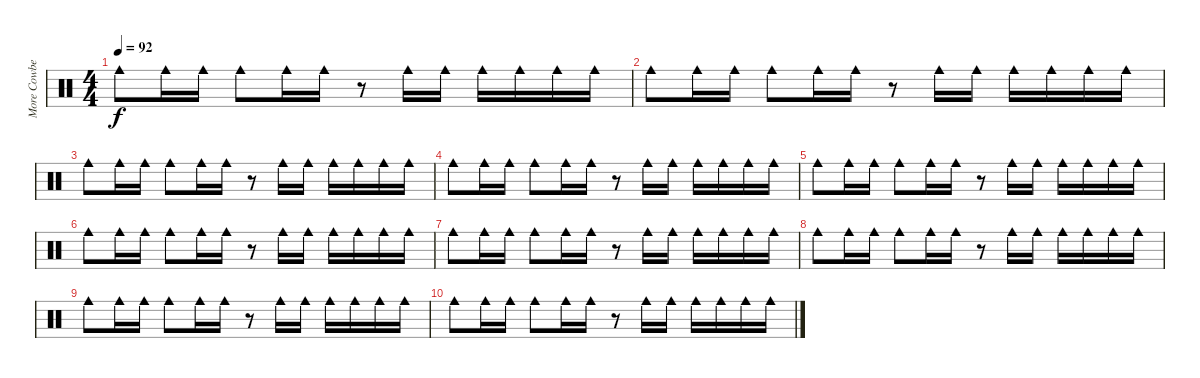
\track ("More Cowbell!" "More Cowbe") {instrument percussion}
\staff {score}
\articulation defaults
\ts (4 4)
\tempo 92
\clef neutral
\ks c "Cowbell medium (hit)".8{dy f} "Cowbell medium (hit)".16 "Cowbell medium (hit)".16 "Cowbell medium (hit)".8 "Cowbell medium (hit)".16 "Cowbell medium (hit)".16
r.8 "Cowbell medium (hit)".16 "Cowbell medium (hit)".16 "Cowbell medium (hit)".16 "Cowbell medium (hit)".16 "Cowbell medium (hit)".16 "Cowbell medium (hit)".16 |
"Cowbell medium (hit)".8 "Cowbell medium (hit)".16 "Cowbell medium (hit)".16 "Cowbell medium (hit)".8 "Cowbell medium (hit)".16 "Cowbell medium (hit)".16 r.8 "Cowbell medium (hit)".16 "Cowbell medium (hit)".16 "Cowbell medium (hit)".16 "Cowbell medium (hit)".16 "Cowbell medium (hit)".16 "Cowbell medium (hit)".16 |
"Cowbell medium (hit)".8 "Cowbell medium (hit)".16 "Cowbell medium (hit)".16 "Cowbell medium (hit)".8 "Cowbell medium (hit)".16 "Cowbell medium (hit)".16 r.8 "Cowbell medium (hit)".16 "Cowbell medium (hit)".16 "Cowbell medium (hit)".16 "Cowbell medium (hit)".16 "Cowbell medium (hit)".16 "Cowbell medium (hit)".16 |
"Cowbell medium (hit)".8 "Cowbell medium (hit)".16 "Cowbell medium (hit)".16 "Cowbell medium (hit)".8 "Cowbell medium (hit)".16 "Cowbell medium (hit)".16 r.8 "Cowbell medium (hit)".16 "Cowbell medium (hit)".16 "Cowbell medium (hit)".16 "Cowbell medium (hit)".16 "Cowbell medium (hit)".16 "Cowbell medium (hit)".16 |
"Cowbell medium (hit)".8 "Cowbell medium (hit)".16 "Cowbell medium (hit)".16 "Cowbell medium (hit)".8 "Cowbell medium (hit)".16 "Cowbell medium (hit)".16 r.8 "Cowbell medium (hit)".16 "Cowbell medium (hit)".16 "Cowbell medium (hit)".16 "Cowbell medium (hit)".16 "Cowbell medium (hit)".16 "Cowbell medium (hit)".16 |
"Cowbell medium (hit)".8 "Cowbell medium (hit)".16 "Cowbell medium (hit)".16 "Cowbell medium (hit)".8 "Cowbell medium (hit)".16 "Cowbell medium (hit)".16 r.8 "Cowbell medium (hit)".16 "Cowbell medium (hit)".16 "Cowbell medium (hit)".16 "Cowbell medium (hit)".16 "Cowbell medium (hit)".16 "Cowbell medium (hit)".16 |
"Cowbell medium (hit)".8 "Cowbell medium (hit)".16 "Cowbell medium (hit)".16 "Cowbell medium (hit)".8 "Cowbell medium (hit)".16 "Cowbell medium (hit)".16 r.8 "Cowbell medium (hit)".16 "Cowbell medium (hit)".16 "Cowbell medium (hit)".16 "Cowbell medium (hit)".16 "Cowbell medium (hit)".16 "Cowbell medium (hit)".16 |
"Cowbell medium (hit)".8 "Cowbell medium (hit)".16 "Cowbell medium (hit)".16 "Cowbell medium (hit)".8 "Cowbell medium (hit)".16 "Cowbell medium (hit)".16 r.8 "Cowbell medium (hit)".16 "Cowbell medium (hit)".16 "Cowbell medium (hit)".16 "Cowbell medium (hit)".16 "Cowbell medium (hit)".16 "Cowbell medium (hit)".16 |
"Cowbell medium (hit)".8 "Cowbell medium (hit)".16 "Cowbell medium (hit)".16 "Cowbell medium (hit)".8 "Cowbell medium (hit)".16 "Cowbell medium (hit)".16 r.8 "Cowbell medium (hit)".16 "Cowbell medium (hit)".16 "Cowbell medium (hit)".16 "Cowbell medium (hit)".16 "Cowbell medium (hit)".16 "Cowbell medium (hit)".16 |
"Cowbell medium (hit)".8 "Cowbell medium (hit)".16 "Cowbell medium (hit)".16 "Cowbell medium (hit)".8 "Cowbell medium (hit)".16 "Cowbell medium (hit)".16 r.8 "Cowbell medium (hit)".16 "Cowbell medium (hit)".16 "Cowbell medium (hit)".16 "Cowbell medium (hit)".16 "Cowbell medium (hit)".16 "Cowbell medium (hit)".16
